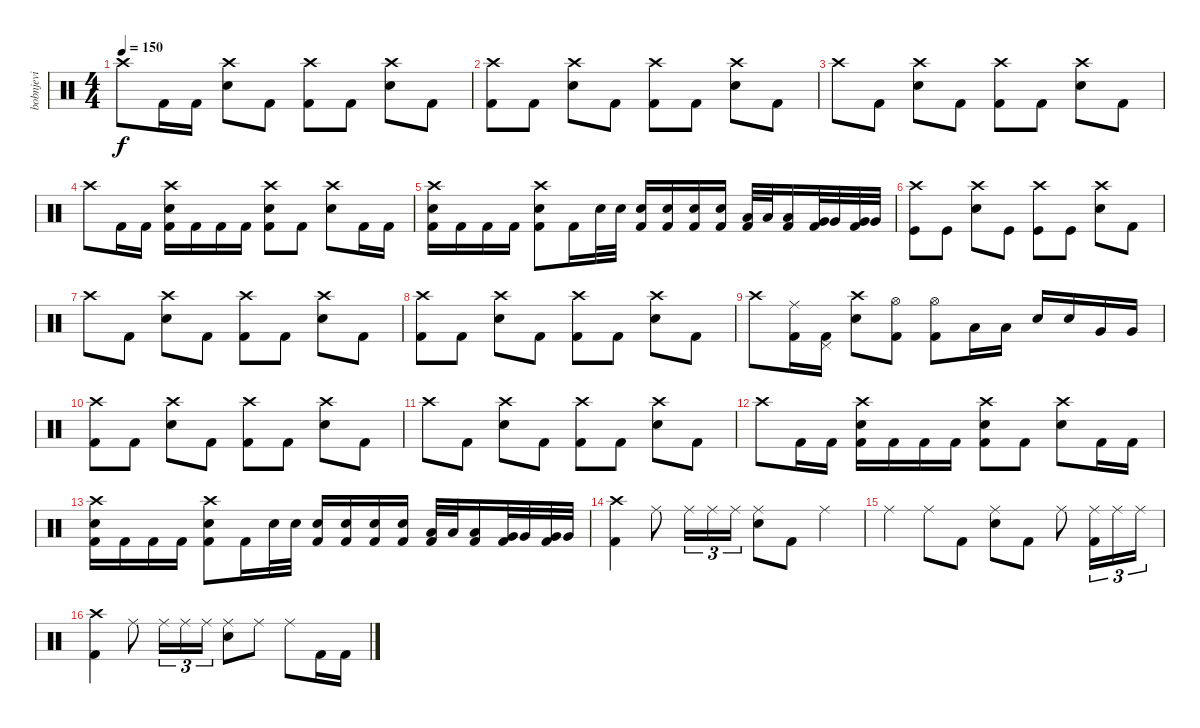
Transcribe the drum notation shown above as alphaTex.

\track ("bobnjevi" "bobnjevi") {instrument percussion}
\staff {score}
\articulation defaults
\ts (4 4)
\tempo 150
\clef neutral
\ks c "Crash high (hit)".8{dy f} "Kick (hit) 2".16 "Kick (hit) 2".16
("Crash high (hit)" "Snare (hit) 2").8 "Kick (hit) 2".8 ("Crash high (hit)" "Kick (hit) 2").8 "Kick (hit) 2".8 ("Crash high (hit)" "Snare (hit) 2").8 "Kick (hit) 2".8 |
("Crash high (hit)" "Kick (hit) 2").8 "Kick (hit) 2".8 ("Crash high (hit)" "Snare (hit) 2").8 "Kick (hit) 2".8 ("Crash high (hit)" "Kick (hit) 2").8 "Kick (hit) 2".8 ("Crash high (hit)" "Snare (hit) 2").8 "Kick (hit) 2".8 |
"Crash high (hit)".8 "Kick (hit) 2".8 ("Crash high (hit)" "Snare (hit) 2").8 "Kick (hit) 2".8 ("Crash high (hit)" "Kick (hit) 2").8 "Kick (hit) 2".8 ("Crash high (hit)" "Snare (hit) 2").8 "Kick (hit) 2".8 |
"Crash high (hit)".8 "Kick (hit) 2".16 "Kick (hit) 2".16 ("Crash high (hit)" "Electric Snare (hit)" "Kick (hit) 2").16 "Kick (hit) 2".16 "Kick (hit) 2".16 "Kick (hit) 2".16 ("Crash high (hit)" "Electric Snare (hit)" "Kick (hit) 2").8 "Kick (hit) 2".8 ("Crash high (hit)" "Electric Snare (hit)").8 "Kick (hit) 2".16 "Kick (hit) 2".16 |
("Crash high (hit)" "Electric Snare (hit)" "Kick (hit) 2").16 "Kick (hit) 2".16 "Kick (hit) 2".16 "Kick (hit) 2".16 ("Crash high (hit)" "Electric Snare (hit)" "Kick (hit) 2").8 "Kick (hit) 2".16 "Electric Snare (hit)".32 "Electric Snare (hit)".32 ("Electric Snare (hit)" "Kick (hit) 2").16 ("Electric Snare (hit)" "Kick (hit) 2").16 ("Electric Snare (hit)" "Kick (hit) 2").16 ("Electric Snare (hit)" "Kick (hit) 2").16 ("Low Tom (hit)" "Kick (hit) 2").32 "Low Tom (hit)".32 ("Low Tom (hit)" "Kick (hit) 2").16 ("Very Low Tom (hit)" "Kick (hit) 2").32 "Very Low Tom (hit)".32 ("Very Low Tom (hit)" "Kick (hit) 2").32 "Very Low Tom (hit)".32 |
("Crash high (hit)" "Kick (hit)").8 "Kick (hit)".8 ("Crash high (hit)" "Snare (hit) 2").8 "Kick (hit)".8 ("Crash high (hit)" "Kick (hit)").8 "Kick (hit)".8 ("Crash high (hit)" "Snare (hit) 2").8 "Kick (hit) 2".8 |
"Crash high (hit)".8 "Kick (hit) 2".8 ("Crash high (hit)" "Snare (hit) 2").8 "Kick (hit) 2".8 ("Crash high (hit)" "Kick (hit) 2").8 "Kick (hit) 2".8 ("Crash high (hit)" "Snare (hit) 2").8 "Kick (hit) 2".8 |
("Crash high (hit)" "Kick (hit) 2").8 "Kick (hit) 2".8 ("Crash high (hit)" "Snare (hit) 2").8 "Kick (hit) 2".8 ("Crash high (hit)" "Kick (hit) 2").8 "Kick (hit) 2".8 ("Crash high (hit)" "Snare (hit) 2").8 "Kick (hit) 2".8 |
"Crash high (hit)".8 ("Ride (middle)" "Kick (hit) 2").16 ("Pedal Hi-Hat (hit)" "Kick (hit) 2").16 ("Crash high (hit)" "Snare (hit) 2").8 ("Hi-Hat (open)" "Kick (hit) 2").8 ("Hi-Hat (open)" "Kick (hit) 2").8 "Low Tom (hit)".16 "Low Tom (hit)".16 "Electric Snare (hit)".16 "Electric Snare (hit)".16 "Very Low Tom (hit)".16 "Very Low Tom (hit)".16 |
("Crash high (hit)" "Kick (hit) 2").8 "Kick (hit) 2".8 ("Crash high (hit)" "Snare (hit) 2").8 "Kick (hit) 2".8 ("Crash high (hit)" "Kick (hit) 2").8 "Kick (hit) 2".8 ("Crash high (hit)" "Snare (hit) 2").8 "Kick (hit) 2".8 |
"Crash high (hit)".8 "Kick (hit) 2".8 ("Crash high (hit)" "Snare (hit) 2").8 "Kick (hit) 2".8 ("Crash high (hit)" "Kick (hit) 2").8 "Kick (hit) 2".8 ("Crash high (hit)" "Snare (hit) 2").8 "Kick (hit) 2".8 |
"Crash high (hit)".8 "Kick (hit) 2".16 "Kick (hit) 2".16 ("Crash high (hit)" "Electric Snare (hit)" "Kick (hit) 2").16 "Kick (hit) 2".16 "Kick (hit) 2".16 "Kick (hit) 2".16 ("Crash high (hit)" "Electric Snare (hit)" "Kick (hit) 2").8 "Kick (hit) 2".8 ("Crash high (hit)" "Electric Snare (hit)").8 "Kick (hit) 2".16 "Kick (hit) 2".16 |
("Crash high (hit)" "Electric Snare (hit)" "Kick (hit) 2").16 "Kick (hit) 2".16 "Kick (hit) 2".16 "Kick (hit) 2".16 ("Crash high (hit)" "Electric Snare (hit)" "Kick (hit) 2").8 "Kick (hit) 2".16 "Electric Snare (hit)".32 "Electric Snare (hit)".32 ("Electric Snare (hit)" "Kick (hit) 2").16 ("Electric Snare (hit)" "Kick (hit) 2").16 ("Electric Snare (hit)" "Kick (hit) 2").16 ("Electric Snare (hit)" "Kick (hit) 2").16 ("Low Tom (hit)" "Kick (hit) 2").32 "Low Tom (hit)".32 ("Low Tom (hit)" "Kick (hit) 2").16 ("Very Low Tom (hit)" "Kick (hit) 2").32 "Very Low Tom (hit)".32 ("Very Low Tom (hit)" "Kick (hit) 2").32 "Very Low Tom (hit)".32 |
("Crash high (hit)" "Kick (hit) 2").4 "Ride (middle)".8 "Ride (middle)".16{tu (3 2)} "Ride (middle)".16{tu (3 2)} "Ride (middle)".16{tu (3 2)} ("Ride (middle)" "Electric Snare (hit)").8 "Kick (hit) 2".8 "Ride (middle)".4 |
"Ride (middle)".4 "Ride (middle)".8 "Kick (hit) 2".8 ("Ride (middle)" "Electric Snare (hit)").8 "Kick (hit) 2".8 "Ride (middle)".8 ("Ride (middle)" "Kick (hit) 2").16{tu (3 2)} "Ride (middle)".16{tu (3 2)} "Ride (middle)".16{tu (3 2)} |
("Crash high (hit)" "Kick (hit) 2").4 "Ride (middle)".8 "Ride (middle)".16{tu (3 2)} "Ride (middle)".16{tu (3 2)} "Ride (middle)".16{tu (3 2)} ("Ride (middle)" "Electric Snare (hit)").8 "Ride (middle)".8 "Ride (middle)".8 "Kick (hit) 2".16 "Kick (hit) 2".16
